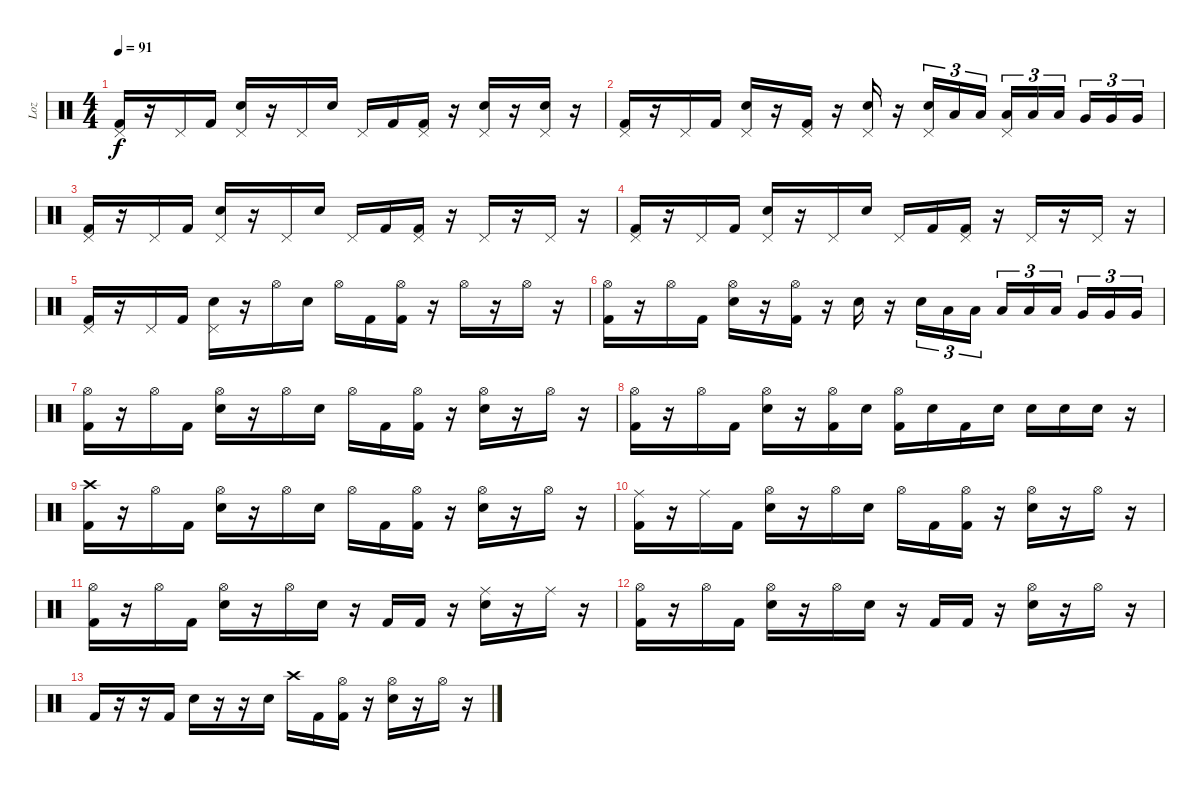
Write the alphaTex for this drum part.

\track ("Loz" "Loz") {instrument percussion}
\staff {score}
\articulation defaults
\ts (4 4)
\tempo 91
\clef neutral
\ks c
("Pedal Hi-Hat (hit)" "Kick (hit) 2").16{dy f} r.16 "Pedal Hi-Hat (hit)".16 "Kick (hit) 2".16 ("Pedal Hi-Hat (hit)" "Electric Snare (hit)").16 r.16 "Pedal Hi-Hat (hit)".16 "Electric Snare (hit)".16 "Pedal Hi-Hat (hit)".16 "Kick (hit) 2".16 ("Pedal Hi-Hat (hit)" "Kick (hit) 2").16 r.16 ("Pedal Hi-Hat (hit)" "Electric Snare (hit)").16 r.16 ("Pedal Hi-Hat (hit)" "Electric Snare (hit)").16 r.16 |
("Pedal Hi-Hat (hit)" "Kick (hit) 2").16 r.16 "Pedal Hi-Hat (hit)".16 "Kick (hit) 2".16 ("Pedal Hi-Hat (hit)" "Electric Snare (hit)").16 r.16 ("Pedal Hi-Hat (hit)" "Kick (hit) 2").16 r.16 ("Pedal Hi-Hat (hit)" "Electric Snare (hit)").16 r.16 ("Pedal Hi-Hat (hit)" "Electric Snare (hit)").16{tu (3 2)} "Low Tom (hit)".16{tu (3 2)} "Low Tom (hit)".16{tu (3 2)} ("Pedal Hi-Hat (hit)" "Low Tom (hit)").16{tu (3 2)} "Low Tom (hit)".16{tu (3 2)} "Low Tom (hit)".16{tu (3 2)} "Very Low Tom (hit)".16{tu (3 2)} "Very Low Tom (hit)".16{tu (3 2)} "Very Low Tom (hit)".16{tu (3 2)} |
("Pedal Hi-Hat (hit)" "Kick (hit) 2").16 r.16 "Pedal Hi-Hat (hit)".16 "Kick (hit) 2".16 ("Pedal Hi-Hat (hit)" "Electric Snare (hit)").16 r.16 "Pedal Hi-Hat (hit)".16 "Electric Snare (hit)".16 "Pedal Hi-Hat (hit)".16 "Kick (hit) 2".16 ("Pedal Hi-Hat (hit)" "Kick (hit) 2").16 r.16 "Pedal Hi-Hat (hit)".16 r.16 "Pedal Hi-Hat (hit)".16 r.16 |
("Pedal Hi-Hat (hit)" "Kick (hit) 2").16 r.16 "Pedal Hi-Hat (hit)".16 "Kick (hit) 2".16 ("Pedal Hi-Hat (hit)" "Electric Snare (hit)").16 r.16 "Pedal Hi-Hat (hit)".16 "Electric Snare (hit)".16 "Pedal Hi-Hat (hit)".16 "Kick (hit) 2".16 ("Pedal Hi-Hat (hit)" "Kick (hit) 2").16 r.16 "Pedal Hi-Hat (hit)".16 r.16 "Pedal Hi-Hat (hit)".16 r.16 |
("Pedal Hi-Hat (hit)" "Kick (hit) 2").16 r.16 "Pedal Hi-Hat (hit)".16 "Kick (hit) 2".16 ("Pedal Hi-Hat (hit)" "Electric Snare (hit)").16 r.16 "Hi-Hat (open)".16 "Electric Snare (hit)".16 "Hi-Hat (open)".16 "Kick (hit) 2".16 ("Hi-Hat (open)" "Kick (hit) 2").16 r.16 "Hi-Hat (open)".16 r.16 "Hi-Hat (open)".16 r.16 |
("Hi-Hat (open)" "Kick (hit) 2").16 r.16 "Hi-Hat (open)".16 "Kick (hit) 2".16 ("Hi-Hat (open)" "Electric Snare (hit)").16 r.16 ("Hi-Hat (open)" "Kick (hit) 2").16 r.16 "Electric Snare (hit)".16 r.16 "Electric Snare (hit)".16{tu (3 2)} "Low Tom (hit)".16{tu (3 2)} "Low Tom (hit)".16{tu (3 2)} "Low Tom (hit)".16{tu (3 2)} "Low Tom (hit)".16{tu (3 2)} "Low Tom (hit)".16{tu (3 2)} "Very Low Tom (hit)".16{tu (3 2)} "Very Low Tom (hit)".16{tu (3 2)} "Very Low Tom (hit)".16{tu (3 2)} |
("Hi-Hat (open)" "Kick (hit) 2").16 r.16 "Hi-Hat (open)".16 "Kick (hit) 2".16 ("Hi-Hat (open)" "Electric Snare (hit)").16 r.16 "Hi-Hat (open)".16 "Electric Snare (hit)".16 "Hi-Hat (open)".16 "Kick (hit) 2".16 ("Hi-Hat (open)" "Kick (hit) 2").16 r.16 ("Hi-Hat (open)" "Electric Snare (hit)").16 r.16 "Hi-Hat (open)".16 r.16 |
("Hi-Hat (open)" "Kick (hit) 2").16 r.16 "Hi-Hat (open)".16 "Kick (hit) 2".16 ("Hi-Hat (open)" "Electric Snare (hit)").16 r.16 ("Hi-Hat (open)" "Kick (hit) 2").16 "Electric Snare (hit)".16 ("Hi-Hat (open)" "Kick (hit) 2").16 "Electric Snare (hit)".16 "Kick (hit) 2".16 "Electric Snare (hit)".16 "Electric Snare (hit)".16 "Electric Snare (hit)".16 "Electric Snare (hit)".16 r.16 |
("Crash high (hit)" "Kick (hit) 2").16 r.16 "Hi-Hat (open)".16 "Kick (hit) 2".16 ("Hi-Hat (open)" "Electric Snare (hit)").16 r.16 "Hi-Hat (open)".16 "Electric Snare (hit)".16 "Hi-Hat (open)".16 "Kick (hit) 2".16 ("Hi-Hat (open)" "Kick (hit) 2").16 r.16 ("Hi-Hat (open)" "Electric Snare (hit)").16 r.16 "Hi-Hat (open)".16 r.16 |
("Ride (middle)" "Kick (hit) 2").16 r.16 "Ride (middle)".16 "Kick (hit) 2".16 ("Hi-Hat (open)" "Electric Snare (hit)").16 r.16 "Hi-Hat (open)".16 "Electric Snare (hit)".16 "Hi-Hat (open)".16 "Kick (hit) 2".16 ("Hi-Hat (open)" "Kick (hit) 2").16 r.16 ("Hi-Hat (open)" "Electric Snare (hit)").16 r.16 "Hi-Hat (open)".16 r.16 |
("Hi-Hat (open)" "Kick (hit) 2").16 r.16 "Hi-Hat (open)".16 "Kick (hit) 2".16 ("Hi-Hat (open)" "Electric Snare (hit)").16 r.16 "Hi-Hat (open)".16 "Electric Snare (hit)".16 r.16 "Kick (hit) 2".16 "Kick (hit) 2".16 r.16 ("Ride (middle)" "Electric Snare (hit)").16 r.16 "Ride (middle)".16 r.16 |
("Hi-Hat (open)" "Kick (hit) 2").16{volume 0} r.16 "Hi-Hat (open)".16 "Kick (hit) 2".16 ("Hi-Hat (open)" "Electric Snare (hit)").16 r.16 "Hi-Hat (open)".16 "Electric Snare (hit)".16 r.16 "Kick (hit) 2".16 "Kick (hit) 2".16 r.16 ("Hi-Hat (open)" "Electric Snare (hit)").16 r.16 "Hi-Hat (open)".16 r.16 |
"Kick (hit) 2".16 r.16 r.16 "Kick (hit) 2".16 "Electric Snare (hit)".16 r.16 r.16 "Electric Snare (hit)".16 "Crash high (hit)".16 "Kick (hit) 2".16 ("Hi-Hat (open)" "Kick (hit) 2").16 r.16 ("Hi-Hat (open)" "Electric Snare (hit)").16 r.16 "Hi-Hat (open)".16 r.16
